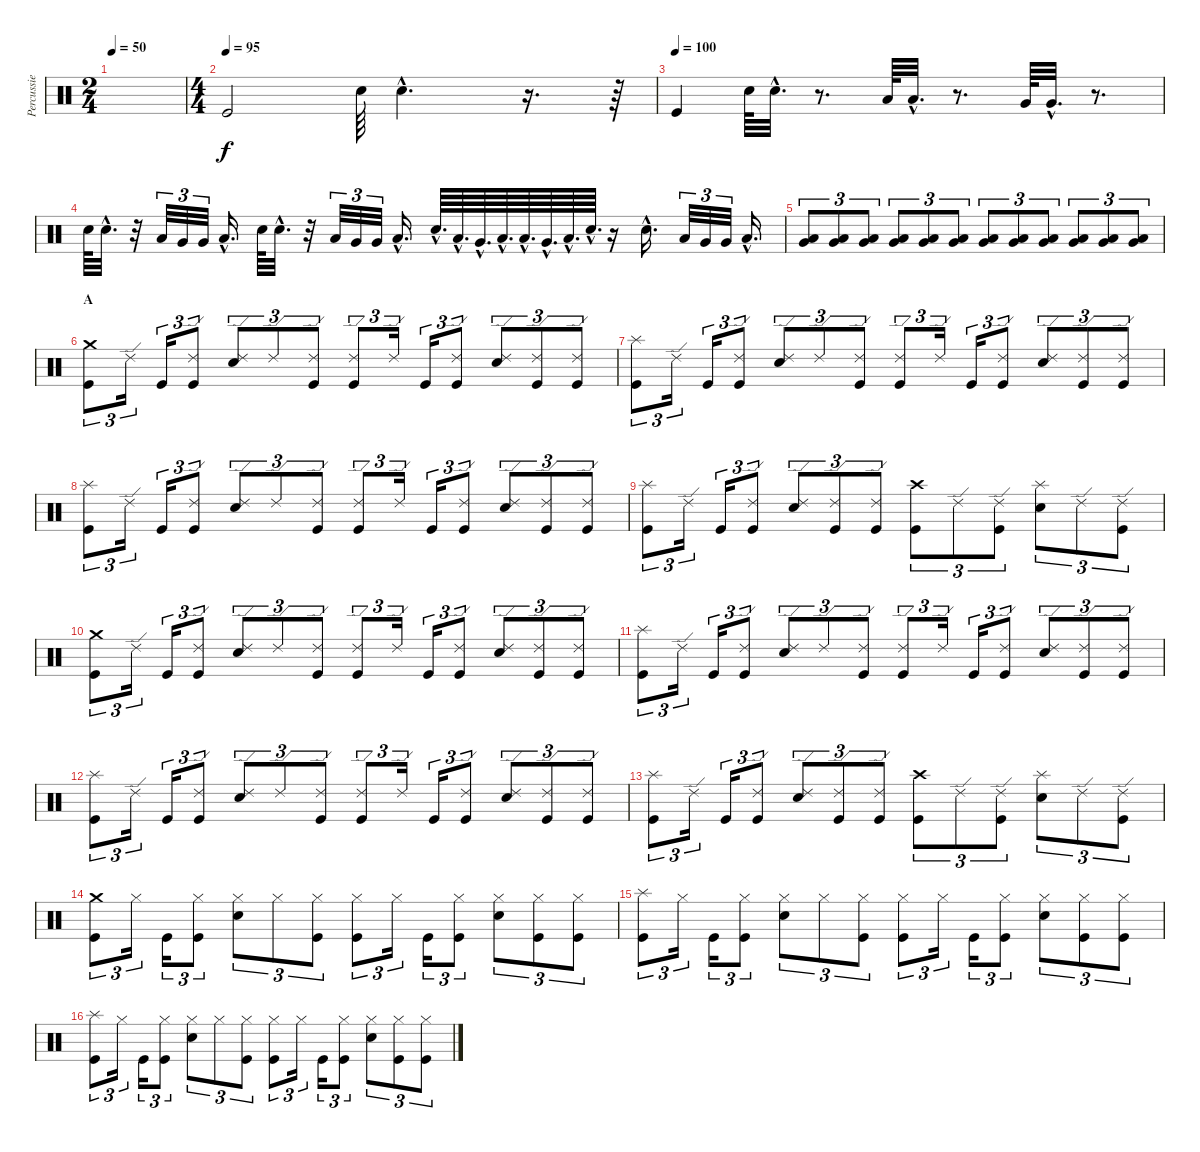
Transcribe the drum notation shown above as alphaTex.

\track ("Percussie" "Percussie") {instrument percussion}
\staff {score}
\articulation defaults
\ts (2 4)
\tempo 50
\clef neutral
\ks c
|
\ts (4 4)
\tempo (95)
"Kick (hit)".2{dy f} "Electric Snare (hit)".64 "Electric Snare (hit)"{hac}.4{d} r.16{d} r.64 |
\tempo (100)
"Kick (hit)".4 "Electric Snare (hit)".64 "Electric Snare (hit)"{hac}.32{d} r.8{d} "Low Tom (hit)".64 "Low Tom (hit)"{hac}.32{d} r.8{d} "Very Low Tom (hit)".64 "Very Low Tom (hit)"{hac}.32{d} r.8{d} |
"Electric Snare (hit)".64 "Electric Snare (hit)"{hac}.32{d} r.32 "Low Tom (hit)".32{tu (3 2)} "Very Low Tom (hit)".32{tu (3 2)} "Very Low Tom (hit)".32{tu (3 2)} "Low Floor Tom (hit)"{hac}.16{d} "Electric Snare (hit)".64 "Electric Snare (hit)"{hac}.32{d} r.32 "Low Tom (hit)".32{tu (3 2)} "Very Low Tom (hit)".32{tu (3 2)} "Very Low Tom (hit)".32{tu (3 2)} "Low Floor Tom (hit)"{hac}.16{d} "Electric Snare (hit)"{hac}.64{d} "Low Tom (hit)"{hac}.64{d} "Very Low Tom (hit)"{hac}.64{d} "Low Floor Tom (hit)"{hac}.64{d} "Low Floor Tom (hit)"{hac}.64{d} "Very Low Tom (hit)"{hac}.64{d} "Low Tom (hit)"{hac}.64{d} "Electric Snare (hit)"{hac}.64{d} r.16 "Electric Snare (hit)"{hac}.16{d} "Low Tom (hit)".32{tu (3 2)} "Very Low Tom (hit)".32{tu (3 2)} "Very Low Tom (hit)".32{tu (3 2)} "Low Floor Tom (hit)"{hac}.16{d volume 8} |
("Very Low Tom (hit)" "Low Floor Tom (hit)").8{tu (3 2) volume 16 balance 16} ("Very Low Tom (hit)" "Low Floor Tom (hit)").8{tu (3 2)} ("Very Low Tom (hit)" "Low Floor Tom (hit)").8{tu (3 2)} ("Very Low Tom (hit)" "Low Floor Tom (hit)").8{tu (3 2)} ("Very Low Tom (hit)" "Low Floor Tom (hit)").8{tu (3 2)} ("Very Low Tom (hit)" "Low Floor Tom (hit)").8{tu (3 2)} ("Very Low Tom (hit)" "Low Floor Tom (hit)").8{tu (3 2)} ("Very Low Tom (hit)" "Low Floor Tom (hit)").8{tu (3 2)} ("Very Low Tom (hit)" "Low Floor Tom (hit)").8{tu (3 2)} ("Very Low Tom (hit)" "Low Floor Tom (hit)").8{tu (3 2)} ("Very Low Tom (hit)" "Low Floor Tom (hit)").8{tu (3 2)} ("Very Low Tom (hit)" "Low Floor Tom (hit)").8{tu (3 2)} |
\section ("" "A")
("Crash medium (hit)" "Kick (hit)").8{tu (3 2) volume 13 balance 8} "Ride (edge) 2".16{tu (3 2)} "Kick (hit)".16{tu (3 2)} ("Ride (edge) 2" "Kick (hit)").8{tu (3 2)} ("Ride (edge) 2" "Electric Snare (hit)").8{tu (3 2)} "Ride (edge) 2".8{tu (3 2)} ("Ride (edge) 2" "Kick (hit)").8{tu (3 2)} ("Ride (edge) 2" "Kick (hit)").8{tu (3 2)} "Ride (edge) 2".16{tu (3 2)} "Kick (hit)".16{tu (3 2)} ("Ride (edge) 2" "Kick (hit)").8{tu (3 2)} ("Ride (edge) 2" "Electric Snare (hit)").8{tu (3 2)} ("Ride (edge) 2" "Kick (hit)").8{tu (3 2)} ("Ride (edge) 2" "Kick (hit)").8{tu (3 2)} |
("Splash (hit)" "Kick (hit)").8{tu (3 2)} "Ride (edge) 2".16{tu (3 2)} "Kick (hit)".16{tu (3 2)} ("Ride (edge) 2" "Kick (hit)").8{tu (3 2)} ("Ride (edge) 2" "Electric Snare (hit)").8{tu (3 2)} "Ride (edge) 2".8{tu (3 2)} ("Ride (edge) 2" "Kick (hit)").8{tu (3 2)} ("Ride (edge) 2" "Kick (hit)").8{tu (3 2)} "Ride (edge) 2".16{tu (3 2)} "Kick (hit)".16{tu (3 2)} ("Ride (edge) 2" "Kick (hit)").8{tu (3 2)} ("Ride (edge) 2" "Electric Snare (hit)").8{tu (3 2)} ("Ride (edge) 2" "Kick (hit)").8{tu (3 2)} ("Ride (edge) 2" "Kick (hit)").8{tu (3 2)} |
("Splash (hit)" "Kick (hit)").8{tu (3 2)} "Ride (edge) 2".16{tu (3 2)} "Kick (hit)".16{tu (3 2)} ("Ride (edge) 2" "Kick (hit)").8{tu (3 2)} ("Ride (edge) 2" "Electric Snare (hit)").8{tu (3 2)} "Ride (edge) 2".8{tu (3 2)} ("Ride (edge) 2" "Kick (hit)").8{tu (3 2)} ("Ride (edge) 2" "Kick (hit)").8{tu (3 2)} "Ride (edge) 2".16{tu (3 2)} "Kick (hit)".16{tu (3 2)} ("Ride (edge) 2" "Kick (hit)").8{tu (3 2)} ("Ride (edge) 2" "Electric Snare (hit)").8{tu (3 2)} ("Ride (edge) 2" "Kick (hit)").8{tu (3 2)} ("Ride (edge) 2" "Kick (hit)").8{tu (3 2)} |
("Splash (hit)" "Kick (hit)").8{tu (3 2)} "Ride (edge) 2".16{tu (3 2)} "Kick (hit)".16{tu (3 2)} ("Ride (edge) 2" "Kick (hit)").8{tu (3 2)} ("Ride (edge) 2" "Electric Snare (hit)").8{tu (3 2)} ("Ride (edge) 2" "Kick (hit)").8{tu (3 2)} ("Ride (edge) 2" "Kick (hit)").8{tu (3 2)} ("Crash high (hit)" "Kick (hit)").8{tu (3 2)} "Ride (edge) 2".8{tu (3 2)} ("Ride (edge) 2" "Kick (hit)").8{tu (3 2)} ("Splash (hit)" "Electric Snare (hit)").8{tu (3 2)} "Ride (edge) 2".8{tu (3 2)} ("Ride (edge) 2" "Kick (hit)").8{tu (3 2)} |
("Crash medium (hit)" "Kick (hit)").8{tu (3 2)} "Ride (edge) 2".16{tu (3 2)} "Kick (hit)".16{tu (3 2)} ("Ride (edge) 2" "Kick (hit)").8{tu (3 2)} ("Ride (edge) 2" "Electric Snare (hit)").8{tu (3 2)} "Ride (edge) 2".8{tu (3 2)} ("Ride (edge) 2" "Kick (hit)").8{tu (3 2)} ("Ride (edge) 2" "Kick (hit)").8{tu (3 2)} "Ride (edge) 2".16{tu (3 2)} "Kick (hit)".16{tu (3 2)} ("Ride (edge) 2" "Kick (hit)").8{tu (3 2)} ("Ride (edge) 2" "Electric Snare (hit)").8{tu (3 2)} ("Ride (edge) 2" "Kick (hit)").8{tu (3 2)} ("Ride (edge) 2" "Kick (hit)").8{tu (3 2)} |
("Splash (hit)" "Kick (hit)").8{tu (3 2)} "Ride (edge) 2".16{tu (3 2)} "Kick (hit)".16{tu (3 2)} ("Ride (edge) 2" "Kick (hit)").8{tu (3 2)} ("Ride (edge) 2" "Electric Snare (hit)").8{tu (3 2)} "Ride (edge) 2".8{tu (3 2)} ("Ride (edge) 2" "Kick (hit)").8{tu (3 2)} ("Ride (edge) 2" "Kick (hit)").8{tu (3 2)} "Ride (edge) 2".16{tu (3 2)} "Kick (hit)".16{tu (3 2)} ("Ride (edge) 2" "Kick (hit)").8{tu (3 2)} ("Ride (edge) 2" "Electric Snare (hit)").8{tu (3 2)} ("Ride (edge) 2" "Kick (hit)").8{tu (3 2)} ("Ride (edge) 2" "Kick (hit)").8{tu (3 2)} |
("Splash (hit)" "Kick (hit)").8{tu (3 2)} "Ride (edge) 2".16{tu (3 2)} "Kick (hit)".16{tu (3 2)} ("Ride (edge) 2" "Kick (hit)").8{tu (3 2)} ("Ride (edge) 2" "Electric Snare (hit)").8{tu (3 2)} "Ride (edge) 2".8{tu (3 2)} ("Ride (edge) 2" "Kick (hit)").8{tu (3 2)} ("Ride (edge) 2" "Kick (hit)").8{tu (3 2)} "Ride (edge) 2".16{tu (3 2)} "Kick (hit)".16{tu (3 2)} ("Ride (edge) 2" "Kick (hit)").8{tu (3 2)} ("Ride (edge) 2" "Electric Snare (hit)").8{tu (3 2)} ("Ride (edge) 2" "Kick (hit)").8{tu (3 2)} ("Ride (edge) 2" "Kick (hit)").8{tu (3 2)} |
("Splash (hit)" "Kick (hit)").8{tu (3 2)} "Ride (edge) 2".16{tu (3 2)} "Kick (hit)".16{tu (3 2)} ("Ride (edge) 2" "Kick (hit)").8{tu (3 2)} ("Ride (edge) 2" "Electric Snare (hit)").8{tu (3 2)} ("Ride (edge) 2" "Kick (hit)").8{tu (3 2)} ("Ride (edge) 2" "Kick (hit)").8{tu (3 2)} ("Crash high (hit)" "Kick (hit)").8{tu (3 2)} "Ride (edge) 2".8{tu (3 2)} ("Ride (edge) 2" "Kick (hit)").8{tu (3 2)} ("Splash (hit)" "Electric Snare (hit)").8{tu (3 2)} "Ride (edge) 2".8{tu (3 2)} ("Ride (edge) 2" "Kick (hit)").8{tu (3 2)} |
("Crash medium (hit)" "Kick (hit)").8{tu (3 2)} "Hi-Hat (closed)".16{tu (3 2)} "Kick (hit)".16{tu (3 2)} ("Hi-Hat (closed)" "Kick (hit)").8{tu (3 2)} ("Hi-Hat (closed)" "Electric Snare (hit)").8{tu (3 2)} "Hi-Hat (closed)".8{tu (3 2)} ("Hi-Hat (closed)" "Kick (hit)").8{tu (3 2)} ("Hi-Hat (closed)" "Kick (hit)").8{tu (3 2)} "Hi-Hat (closed)".16{tu (3 2)} "Kick (hit)".16{tu (3 2)} ("Hi-Hat (closed)" "Kick (hit)").8{tu (3 2)} ("Hi-Hat (closed)" "Electric Snare (hit)").8{tu (3 2)} ("Hi-Hat (closed)" "Kick (hit)").8{tu (3 2)} ("Hi-Hat (closed)" "Kick (hit)").8{tu (3 2)} |
("Splash (hit)" "Kick (hit)").8{tu (3 2)} "Hi-Hat (closed)".16{tu (3 2)} "Kick (hit)".16{tu (3 2)} ("Hi-Hat (closed)" "Kick (hit)").8{tu (3 2)} ("Hi-Hat (closed)" "Electric Snare (hit)").8{tu (3 2)} "Hi-Hat (closed)".8{tu (3 2)} ("Hi-Hat (closed)" "Kick (hit)").8{tu (3 2)} ("Hi-Hat (closed)" "Kick (hit)").8{tu (3 2)} "Hi-Hat (closed)".16{tu (3 2)} "Kick (hit)".16{tu (3 2)} ("Hi-Hat (closed)" "Kick (hit)").8{tu (3 2)} ("Hi-Hat (closed)" "Electric Snare (hit)").8{tu (3 2)} ("Hi-Hat (closed)" "Kick (hit)").8{tu (3 2)} ("Hi-Hat (closed)" "Kick (hit)").8{tu (3 2)} |
("Splash (hit)" "Kick (hit)").8{tu (3 2)} "Hi-Hat (closed)".16{tu (3 2)} "Kick (hit)".16{tu (3 2)} ("Hi-Hat (closed)" "Kick (hit)").8{tu (3 2)} ("Hi-Hat (closed)" "Electric Snare (hit)").8{tu (3 2)} "Hi-Hat (closed)".8{tu (3 2)} ("Hi-Hat (closed)" "Kick (hit)").8{tu (3 2)} ("Hi-Hat (closed)" "Kick (hit)").8{tu (3 2)} "Hi-Hat (closed)".16{tu (3 2)} "Kick (hit)".16{tu (3 2)} ("Hi-Hat (closed)" "Kick (hit)").8{tu (3 2)} ("Hi-Hat (closed)" "Electric Snare (hit)").8{tu (3 2)} ("Hi-Hat (closed)" "Kick (hit)").8{tu (3 2)} ("Hi-Hat (closed)" "Kick (hit)").8{tu (3 2)}
